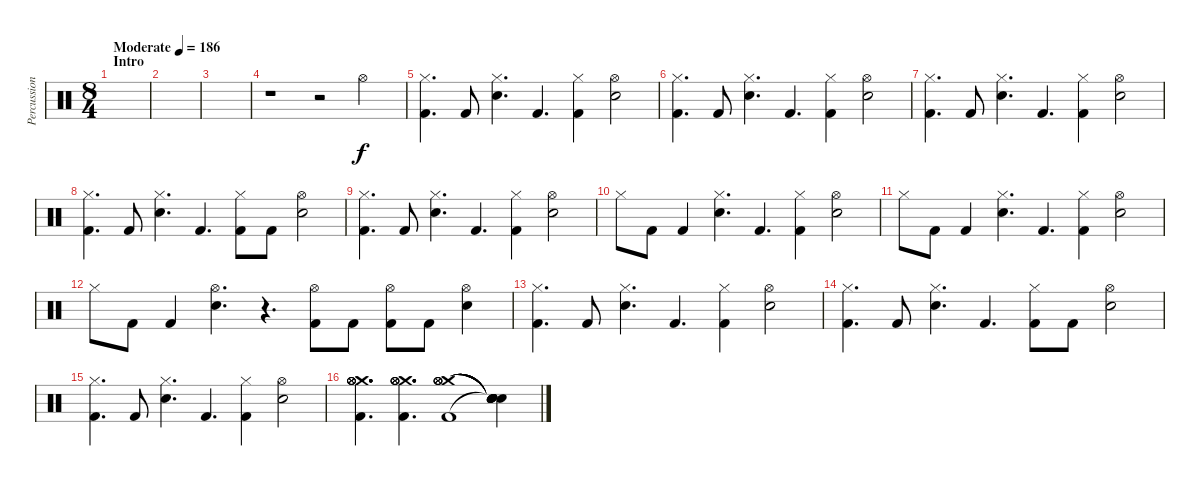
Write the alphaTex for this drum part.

\track ("Percussion" "Percussion") {instrument percussion}
\staff {score}
\articulation defaults
\ts (8 4)
\section ("" "Intro")
\tempo (186 "Moderate")
\clef neutral
\ks c
|
|
|
r.1 r.2 "Hi-Hat (open)".2 |
("Hi-Hat (closed)" "Kick (hit) 2").4{d} "Kick (hit) 2".8 ("Hi-Hat (closed)" "Electric Snare (hit)").4{d} "Kick (hit) 2".4{d} ("Hi-Hat (closed)" "Kick (hit) 2").4 ("Hi-Hat (open)" "Electric Snare (hit)").2 |
("Hi-Hat (closed)" "Kick (hit) 2").4{d} "Kick (hit) 2".8 ("Hi-Hat (closed)" "Electric Snare (hit)").4{d} "Kick (hit) 2".4{d} ("Hi-Hat (closed)" "Kick (hit) 2").4 ("Hi-Hat (open)" "Electric Snare (hit)").2 |
("Hi-Hat (closed)" "Kick (hit) 2").4{d} "Kick (hit) 2".8 ("Hi-Hat (closed)" "Electric Snare (hit)").4{d} "Kick (hit) 2".4{d} ("Hi-Hat (closed)" "Kick (hit) 2").4 ("Hi-Hat (open)" "Electric Snare (hit)").2 |
("Hi-Hat (closed)" "Kick (hit) 2").4{d} "Kick (hit) 2".8 ("Hi-Hat (closed)" "Electric Snare (hit)").4{d} "Kick (hit) 2".4{d} ("Hi-Hat (closed)" "Kick (hit) 2").8 "Kick (hit) 2".8 ("Hi-Hat (open)" "Electric Snare (hit)").2 |
("Hi-Hat (closed)" "Kick (hit) 2").4{d} "Kick (hit) 2".8 ("Hi-Hat (closed)" "Electric Snare (hit)").4{d} "Kick (hit) 2".4{d} ("Hi-Hat (closed)" "Kick (hit) 2").4 ("Hi-Hat (open)" "Electric Snare (hit)").2 |
"Hi-Hat (closed)".8 "Kick (hit) 2".8 "Kick (hit) 2".4 ("Hi-Hat (closed)" "Electric Snare (hit)").4{d} "Kick (hit) 2".4{d} ("Hi-Hat (closed)" "Kick (hit) 2").4 ("Hi-Hat (open)" "Electric Snare (hit)").2 |
"Hi-Hat (closed)".8 "Kick (hit) 2".8 "Kick (hit) 2".4 ("Hi-Hat (closed)" "Electric Snare (hit)").4{d} "Kick (hit) 2".4{d} ("Hi-Hat (closed)" "Kick (hit) 2").4 ("Hi-Hat (open)" "Electric Snare (hit)").2 |
"Hi-Hat (closed)".8 "Kick (hit) 2".8 "Kick (hit) 2".4 ("Hi-Hat (open)" "Electric Snare (hit)").4{d} r.4{d} ("Hi-Hat (open)" "Kick (hit) 2").8 "Kick (hit) 2".8 ("Hi-Hat (open)" "Kick (hit) 2").8 "Kick (hit) 2".8 ("Hi-Hat (open)" "Electric Snare (hit)").4 |
("Hi-Hat (closed)" "Kick (hit) 2").4{d} "Kick (hit) 2".8 ("Hi-Hat (closed)" "Electric Snare (hit)").4{d} "Kick (hit) 2".4{d} ("Hi-Hat (closed)" "Kick (hit) 2").4 ("Hi-Hat (open)" "Electric Snare (hit)").2 |
("Hi-Hat (closed)" "Kick (hit) 2").4{d} "Kick (hit) 2".8 ("Hi-Hat (closed)" "Electric Snare (hit)").4{d} "Kick (hit) 2".4{d} ("Hi-Hat (closed)" "Kick (hit) 2").8 "Kick (hit) 2".8 ("Hi-Hat (open)" "Electric Snare (hit)").2 |
("Hi-Hat (closed)" "Kick (hit) 2").4{d} "Kick (hit) 2".8 ("Hi-Hat (closed)" "Electric Snare (hit)").4{d} "Kick (hit) 2".4{d} ("Hi-Hat (closed)" "Kick (hit) 2").4 ("Hi-Hat (open)" "Electric Snare (hit)").2 |
("Crash medium (hit)" "Hi-Hat (open)" "Hi-Hat (open)" "Hi-Hat (open)" "Hi-Hat (open)" "Kick (hit) 2").4{d} ("Crash medium (hit)" "Hi-Hat (open)" "Hi-Hat (open)" "Hi-Hat (open)" "Hi-Hat (open)" "Kick (hit) 2").4{d} ("Crash medium (hit)" "Hi-Hat (open)" "Hi-Hat (open)" "Hi-Hat (open)" "Hi-Hat (open)" "Kick (hit) 2").1 ("Snare (hit)"{t} "Snare (hit)"{t} "Snare (hit)"{t} "Snare (hit)"{t} "Snare (hit)"{t} "Snare (hit)"{t}).4
